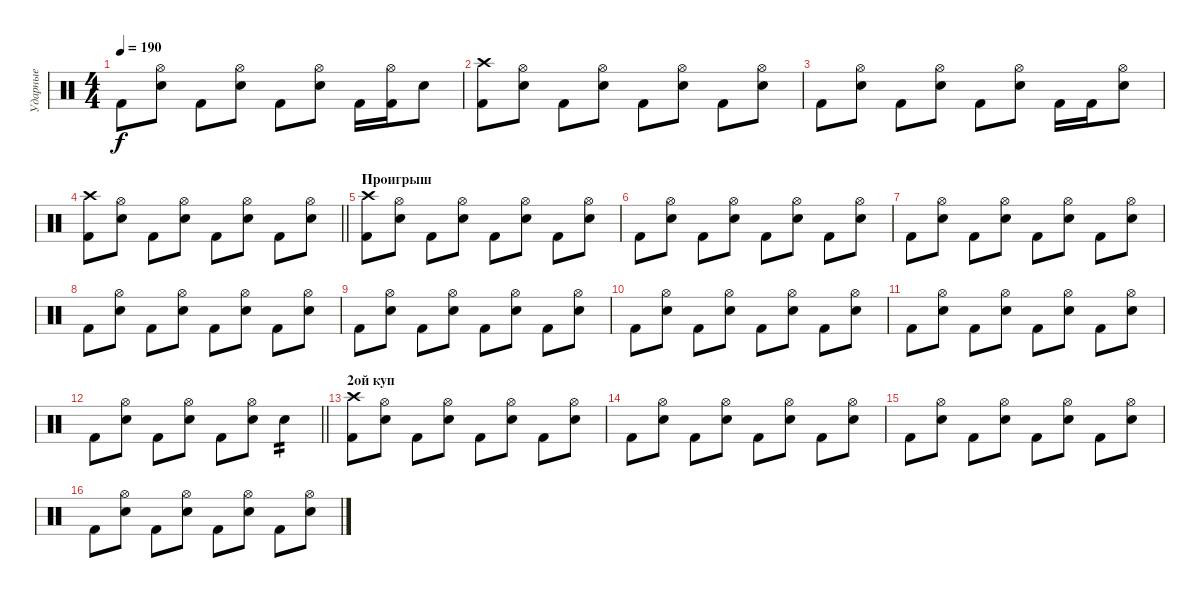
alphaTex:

\track ("Ударные" "Ударные") {instrument percussion}
\staff {score}
\articulation defaults
\ts (4 4)
\tempo 190
\clef neutral
\ks c "Kick (hit) 2".8{dy f}
("Hi-Hat (open)" "Electric Snare (hit)").8 "Kick (hit) 2".8 ("Hi-Hat (open)" "Electric Snare (hit)").8 "Kick (hit) 2".8 ("Hi-Hat (open)" "Electric Snare (hit)").8 "Kick (hit) 2".16 ("Hi-Hat (open)" "Kick (hit) 2").16 "Electric Snare (hit)".8 |
("Crash high (hit)" "Kick (hit) 2").8 ("Hi-Hat (open)" "Electric Snare (hit)").8 "Kick (hit) 2".8 ("Hi-Hat (open)" "Electric Snare (hit)").8 "Kick (hit) 2".8 ("Hi-Hat (open)" "Electric Snare (hit)").8 "Kick (hit) 2".8 ("Hi-Hat (open)" "Electric Snare (hit)").8 |
"Kick (hit) 2".8 ("Hi-Hat (open)" "Electric Snare (hit)").8 "Kick (hit) 2".8 ("Hi-Hat (open)" "Electric Snare (hit)").8 "Kick (hit) 2".8 ("Hi-Hat (open)" "Electric Snare (hit)").8 "Kick (hit) 2".16 "Kick (hit) 2".16 ("Hi-Hat (open)" "Electric Snare (hit)").8 |
\barLineRight lightlight
("Crash high (hit)" "Kick (hit) 2").8 ("Hi-Hat (open)" "Electric Snare (hit)").8 "Kick (hit) 2".8 ("Hi-Hat (open)" "Electric Snare (hit)").8 "Kick (hit) 2".8 ("Hi-Hat (open)" "Electric Snare (hit)").8 "Kick (hit) 2".8 ("Hi-Hat (open)" "Electric Snare (hit)").8 |
\section ("" "Проигрыш")
("Crash high (hit)" "Kick (hit) 2").8 ("Hi-Hat (open)" "Electric Snare (hit)").8 "Kick (hit) 2".8 ("Hi-Hat (open)" "Electric Snare (hit)").8 "Kick (hit) 2".8 ("Hi-Hat (open)" "Electric Snare (hit)").8 "Kick (hit) 2".8 ("Hi-Hat (open)" "Electric Snare (hit)").8 |
"Kick (hit) 2".8 ("Hi-Hat (open)" "Electric Snare (hit)").8 "Kick (hit) 2".8 ("Hi-Hat (open)" "Electric Snare (hit)").8 "Kick (hit) 2".8 ("Hi-Hat (open)" "Electric Snare (hit)").8 "Kick (hit) 2".8 ("Hi-Hat (open)" "Electric Snare (hit)").8 |
"Kick (hit) 2".8 ("Hi-Hat (open)" "Electric Snare (hit)").8 "Kick (hit) 2".8 ("Hi-Hat (open)" "Electric Snare (hit)").8 "Kick (hit) 2".8 ("Hi-Hat (open)" "Electric Snare (hit)").8 "Kick (hit) 2".8 ("Hi-Hat (open)" "Electric Snare (hit)").8 |
"Kick (hit) 2".8 ("Hi-Hat (open)" "Electric Snare (hit)").8 "Kick (hit) 2".8 ("Hi-Hat (open)" "Electric Snare (hit)").8 "Kick (hit) 2".8 ("Hi-Hat (open)" "Electric Snare (hit)").8 "Kick (hit) 2".8 ("Hi-Hat (open)" "Electric Snare (hit)").8 |
"Kick (hit) 2".8 ("Hi-Hat (open)" "Electric Snare (hit)").8 "Kick (hit) 2".8 ("Hi-Hat (open)" "Electric Snare (hit)").8 "Kick (hit) 2".8 ("Hi-Hat (open)" "Electric Snare (hit)").8 "Kick (hit) 2".8 ("Hi-Hat (open)" "Electric Snare (hit)").8 |
"Kick (hit) 2".8 ("Hi-Hat (open)" "Electric Snare (hit)").8 "Kick (hit) 2".8 ("Hi-Hat (open)" "Electric Snare (hit)").8 "Kick (hit) 2".8 ("Hi-Hat (open)" "Electric Snare (hit)").8 "Kick (hit) 2".8 ("Hi-Hat (open)" "Electric Snare (hit)").8 |
"Kick (hit) 2".8 ("Hi-Hat (open)" "Electric Snare (hit)").8 "Kick (hit) 2".8 ("Hi-Hat (open)" "Electric Snare (hit)").8 "Kick (hit) 2".8 ("Hi-Hat (open)" "Electric Snare (hit)").8 "Kick (hit) 2".8 ("Hi-Hat (open)" "Electric Snare (hit)").8 |
\barLineRight lightlight "Kick (hit) 2".8
("Hi-Hat (open)" "Electric Snare (hit)").8 "Kick (hit) 2".8 ("Hi-Hat (open)" "Electric Snare (hit)").8 "Kick (hit) 2".8 ("Hi-Hat (open)" "Electric Snare (hit)").8 "Electric Snare (hit)".4{tp 2} |
\section ("" "2ой куп")
("Crash high (hit)" "Kick (hit) 2").8 ("Hi-Hat (open)" "Electric Snare (hit)").8 "Kick (hit) 2".8 ("Hi-Hat (open)" "Electric Snare (hit)").8 "Kick (hit) 2".8 ("Hi-Hat (open)" "Electric Snare (hit)").8 "Kick (hit) 2".8 ("Hi-Hat (open)" "Electric Snare (hit)").8 |
"Kick (hit) 2".8 ("Hi-Hat (open)" "Electric Snare (hit)").8 "Kick (hit) 2".8 ("Hi-Hat (open)" "Electric Snare (hit)").8 "Kick (hit) 2".8 ("Hi-Hat (open)" "Electric Snare (hit)").8 "Kick (hit) 2".8 ("Hi-Hat (open)" "Electric Snare (hit)").8 |
"Kick (hit) 2".8 ("Hi-Hat (open)" "Electric Snare (hit)").8 "Kick (hit) 2".8 ("Hi-Hat (open)" "Electric Snare (hit)").8 "Kick (hit) 2".8 ("Hi-Hat (open)" "Electric Snare (hit)").8 "Kick (hit) 2".8 ("Hi-Hat (open)" "Electric Snare (hit)").8 |
"Kick (hit) 2".8 ("Hi-Hat (open)" "Electric Snare (hit)").8 "Kick (hit) 2".8 ("Hi-Hat (open)" "Electric Snare (hit)").8 "Kick (hit) 2".8 ("Hi-Hat (open)" "Electric Snare (hit)").8 "Kick (hit) 2".8 ("Hi-Hat (open)" "Electric Snare (hit)").8
